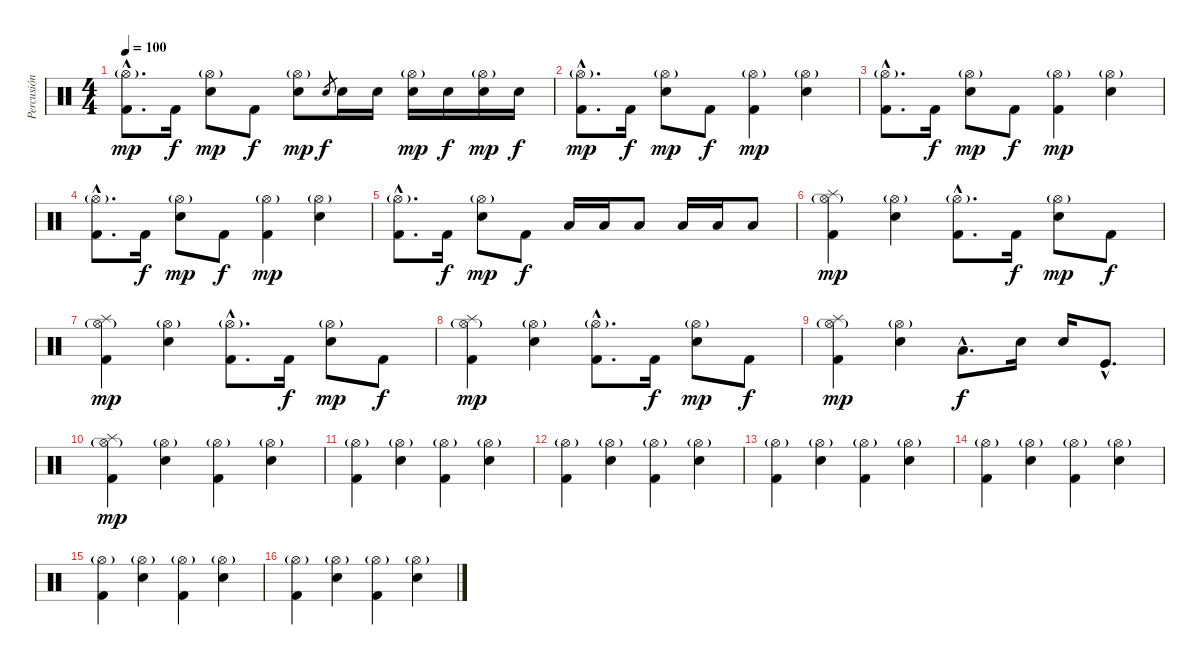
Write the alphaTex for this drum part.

\track ("Percusión" "Percusión") {instrument percussion}
\staff {score}
\articulation defaults
\ts (4 4)
\tempo 100
\clef neutral
\ks c
("Kick (hit) 2"{hac} "Hi-Hat (open)"{g hac}).8{d dy mp} "Kick (hit) 2".16{dy f} ("Electric Snare (hit)" "Hi-Hat (open)"{g}).8{dy mp} "Kick (hit) 2".8{dy f} ("Electric Snare (hit)" "Hi-Hat (open)"{g}).8{dy mp} "Electric Snare (hit)".8{gr dy f} "Electric Snare (hit)".16 "Electric Snare (hit)".16 ("Electric Snare (hit)" "Hi-Hat (open)"{g}).16{dy mp} "Electric Snare (hit)".16{dy f} ("Electric Snare (hit)" "Hi-Hat (open)"{g}).16{dy mp} "Electric Snare (hit)".16{dy f} |
("Kick (hit) 2"{hac} "Hi-Hat (open)"{g hac}).8{d dy mp} "Kick (hit) 2".16{dy f} ("Electric Snare (hit)" "Hi-Hat (open)"{g}).8{dy mp} "Kick (hit) 2".8{dy f} ("Kick (hit) 2" "Hi-Hat (open)"{g}).4{dy mp} ("Electric Snare (hit)" "Hi-Hat (open)"{g}).4 |
("Kick (hit) 2"{hac} "Hi-Hat (open)"{g hac}).8{d} "Kick (hit) 2".16{dy f} ("Electric Snare (hit)" "Hi-Hat (open)"{g}).8{dy mp} "Kick (hit) 2".8{dy f} ("Kick (hit) 2" "Hi-Hat (open)"{g}).4{dy mp} ("Electric Snare (hit)" "Hi-Hat (open)"{g}).4 |
("Kick (hit) 2"{hac} "Hi-Hat (open)"{g hac}).8{d} "Kick (hit) 2".16{dy f} ("Electric Snare (hit)" "Hi-Hat (open)"{g}).8{dy mp} "Kick (hit) 2".8{dy f} ("Kick (hit) 2" "Hi-Hat (open)"{g}).4{dy mp} ("Electric Snare (hit)" "Hi-Hat (open)"{g}).4 |
("Kick (hit) 2"{hac} "Hi-Hat (open)"{g hac}).8{d} "Kick (hit) 2".16{dy f} ("Electric Snare (hit)" "Hi-Hat (open)"{g}).8{dy mp} "Kick (hit) 2".8{dy f} "Low Tom (hit)".16 "Low Tom (hit)".16 "Low Tom (hit)".8 "Low Tom (hit)".16 "Low Tom (hit)".16 "Low Tom (hit)".8 |
("Kick (hit) 2" "Splash (hit)" "Hi-Hat (open)"{g}).4{dy mp} ("Electric Snare (hit)" "Hi-Hat (open)"{g}).4 ("Kick (hit) 2"{hac} "Hi-Hat (open)"{g hac}).8{d} "Kick (hit) 2".16{dy f} ("Electric Snare (hit)" "Hi-Hat (open)"{g}).8{dy mp} "Kick (hit) 2".8{dy f} |
("Kick (hit) 2" "Splash (hit)" "Hi-Hat (open)"{g}).4{dy mp} ("Electric Snare (hit)" "Hi-Hat (open)"{g}).4 ("Kick (hit) 2"{hac} "Hi-Hat (open)"{g hac}).8{d} "Kick (hit) 2".16{dy f} ("Electric Snare (hit)" "Hi-Hat (open)"{g}).8{dy mp} "Kick (hit) 2".8{dy f} |
("Kick (hit) 2" "Splash (hit)" "Hi-Hat (open)"{g}).4{dy mp} ("Electric Snare (hit)" "Hi-Hat (open)"{g}).4 ("Kick (hit) 2"{hac} "Hi-Hat (open)"{g hac}).8{d} "Kick (hit) 2".16{dy f} ("Electric Snare (hit)" "Hi-Hat (open)"{g}).8{dy mp} "Kick (hit) 2".8{dy f} |
("Kick (hit) 2" "Splash (hit)" "Hi-Hat (open)"{g}).4{dy mp} ("Electric Snare (hit)" "Hi-Hat (open)"{g}).4 "Low Tom (hit)"{hac}.8{d dy f} "Electric Snare (hit)".16 "Electric Snare (hit)".16 "Kick (hit)"{hac}.8{d} |
("Kick (hit) 2" "Splash (hit)" "Hi-Hat (open)"{g}).4{dy mp} ("Electric Snare (hit)" "Hi-Hat (open)"{g}).4 ("Kick (hit) 2" "Hi-Hat (open)"{g}).4 ("Electric Snare (hit)" "Hi-Hat (open)"{g}).4 |
("Kick (hit) 2" "Hi-Hat (open)"{g}).4 ("Electric Snare (hit)" "Hi-Hat (open)"{g}).4 ("Kick (hit) 2" "Hi-Hat (open)"{g}).4 ("Electric Snare (hit)" "Hi-Hat (open)"{g}).4 |
("Kick (hit) 2" "Hi-Hat (open)"{g}).4 ("Electric Snare (hit)" "Hi-Hat (open)"{g}).4 ("Kick (hit) 2" "Hi-Hat (open)"{g}).4 ("Electric Snare (hit)" "Hi-Hat (open)"{g}).4 |
("Kick (hit) 2" "Hi-Hat (open)"{g}).4 ("Electric Snare (hit)" "Hi-Hat (open)"{g}).4 ("Kick (hit) 2" "Hi-Hat (open)"{g}).4 ("Electric Snare (hit)" "Hi-Hat (open)"{g}).4 |
("Kick (hit) 2" "Hi-Hat (open)"{g}).4 ("Electric Snare (hit)" "Hi-Hat (open)"{g}).4 ("Kick (hit) 2" "Hi-Hat (open)"{g}).4 ("Electric Snare (hit)" "Hi-Hat (open)"{g}).4 |
("Kick (hit) 2" "Hi-Hat (open)"{g}).4 ("Electric Snare (hit)" "Hi-Hat (open)"{g}).4 ("Kick (hit) 2" "Hi-Hat (open)"{g}).4 ("Electric Snare (hit)" "Hi-Hat (open)"{g}).4 |
("Kick (hit) 2" "Hi-Hat (open)"{g}).4 ("Electric Snare (hit)" "Hi-Hat (open)"{g}).4 ("Kick (hit) 2" "Hi-Hat (open)"{g}).4 ("Electric Snare (hit)" "Hi-Hat (open)"{g}).4
